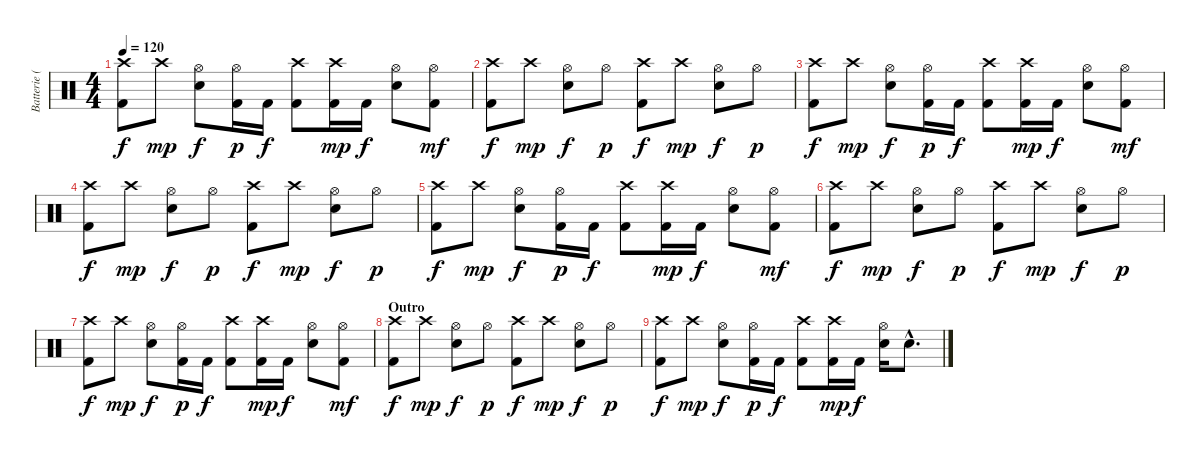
\track ("Batterie (Racci \"Sketchy\" Shay)" "Batterie (") {instrument percussion}
\staff {score}
\articulation defaults
\ts (4 4)
\tempo 120
\clef neutral
\ks c
("Crash high (hit)" "Kick (hit) 2").8{dy f} "Crash high (hit)".8{dy mp} ("Hi-Hat (open)" "Electric Snare (hit)").8{dy f} ("Hi-Hat (open)" "Kick (hit) 2").16{dy p} "Kick (hit) 2".16{dy f} ("Crash high (hit)" "Kick (hit) 2").8 ("Crash high (hit)" "Kick (hit) 2").16{dy mp} "Kick (hit) 2".16{dy f} ("Hi-Hat (open)" "Electric Snare (hit)").8 ("Hi-Hat (open)" "Kick (hit) 2").8{dy mf} |
("Crash high (hit)" "Kick (hit) 2").8{dy f} "Crash high (hit)".8{dy mp} ("Hi-Hat (open)" "Electric Snare (hit)").8{dy f} "Hi-Hat (open)".8{dy p} ("Crash high (hit)" "Kick (hit) 2").8{dy f} "Crash high (hit)".8{dy mp} ("Hi-Hat (open)" "Electric Snare (hit)").8{dy f} "Hi-Hat (open)".8{dy p} |
("Crash high (hit)" "Kick (hit) 2").8{dy f} "Crash high (hit)".8{dy mp} ("Hi-Hat (open)" "Electric Snare (hit)").8{dy f} ("Hi-Hat (open)" "Kick (hit) 2").16{dy p} "Kick (hit) 2".16{dy f} ("Crash high (hit)" "Kick (hit) 2").8 ("Crash high (hit)" "Kick (hit) 2").16{dy mp} "Kick (hit) 2".16{dy f} ("Hi-Hat (open)" "Electric Snare (hit)").8 ("Hi-Hat (open)" "Kick (hit) 2").8{dy mf} |
("Crash high (hit)" "Kick (hit) 2").8{dy f} "Crash high (hit)".8{dy mp} ("Hi-Hat (open)" "Electric Snare (hit)").8{dy f} "Hi-Hat (open)".8{dy p} ("Crash high (hit)" "Kick (hit) 2").8{dy f} "Crash high (hit)".8{dy mp} ("Hi-Hat (open)" "Electric Snare (hit)").8{dy f} "Hi-Hat (open)".8{dy p} |
("Crash high (hit)" "Kick (hit) 2").8{dy f} "Crash high (hit)".8{dy mp} ("Hi-Hat (open)" "Electric Snare (hit)").8{dy f} ("Hi-Hat (open)" "Kick (hit) 2").16{dy p} "Kick (hit) 2".16{dy f} ("Crash high (hit)" "Kick (hit) 2").8 ("Crash high (hit)" "Kick (hit) 2").16{dy mp} "Kick (hit) 2".16{dy f} ("Hi-Hat (open)" "Electric Snare (hit)").8 ("Hi-Hat (open)" "Kick (hit) 2").8{dy mf} |
("Crash high (hit)" "Kick (hit) 2").8{dy f} "Crash high (hit)".8{dy mp} ("Hi-Hat (open)" "Electric Snare (hit)").8{dy f} "Hi-Hat (open)".8{dy p} ("Crash high (hit)" "Kick (hit) 2").8{dy f} "Crash high (hit)".8{dy mp} ("Hi-Hat (open)" "Electric Snare (hit)").8{dy f} "Hi-Hat (open)".8{dy p} |
("Crash high (hit)" "Kick (hit) 2").8{dy f} "Crash high (hit)".8{dy mp} ("Hi-Hat (open)" "Electric Snare (hit)").8{dy f} ("Hi-Hat (open)" "Kick (hit) 2").16{dy p} "Kick (hit) 2".16{dy f} ("Crash high (hit)" "Kick (hit) 2").8 ("Crash high (hit)" "Kick (hit) 2").16{dy mp} "Kick (hit) 2".16{dy f} ("Hi-Hat (open)" "Electric Snare (hit)").8 ("Hi-Hat (open)" "Kick (hit) 2").8{dy mf} |
\section ("" "Outro")
("Crash high (hit)" "Kick (hit) 2").8{dy f} "Crash high (hit)".8{dy mp} ("Hi-Hat (open)" "Electric Snare (hit)").8{dy f} "Hi-Hat (open)".8{dy p} ("Crash high (hit)" "Kick (hit) 2").8{dy f} "Crash high (hit)".8{dy mp} ("Hi-Hat (open)" "Electric Snare (hit)").8{dy f} "Hi-Hat (open)".8{dy p} |
("Crash high (hit)" "Kick (hit) 2").8{dy f} "Crash high (hit)".8{dy mp} ("Hi-Hat (open)" "Electric Snare (hit)").8{dy f} ("Hi-Hat (open)" "Kick (hit) 2").16{dy p} "Kick (hit) 2".16{dy f} ("Crash high (hit)" "Kick (hit) 2").8 ("Crash high (hit)" "Kick (hit) 2").16{dy mp} "Kick (hit) 2".16{dy f} ("Hi-Hat (open)" "Electric Snare (hit)").16 "Electric Snare (hit)"{hac}.8{d}
